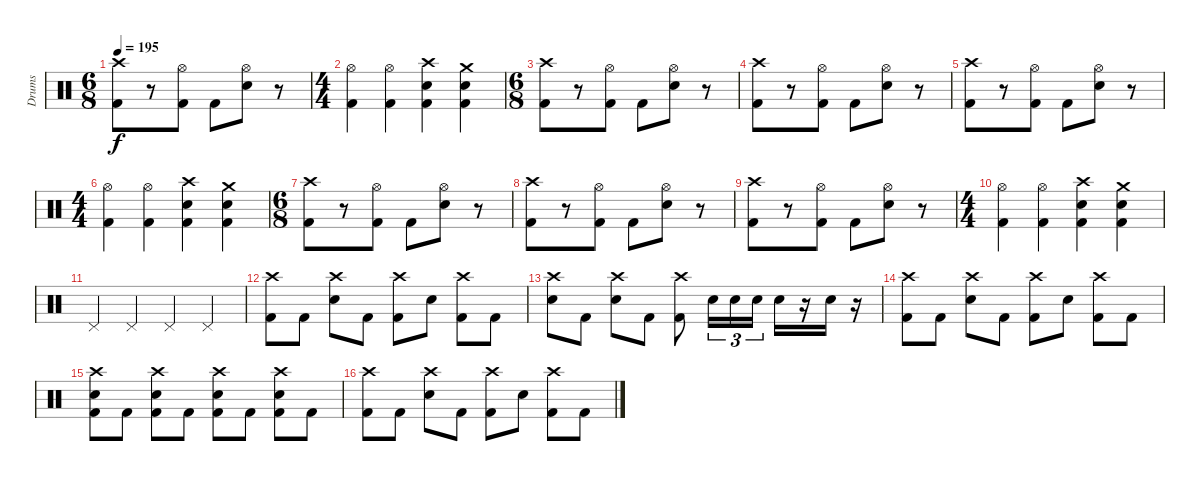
\track ("Drums" "Drums") {instrument percussion}
\staff {score}
\articulation defaults
\ts (6 8)
\tempo 195
\clef neutral
\ks c
("Crash high (hit)" "Kick (hit) 2").8{dy f} r.8 ("Hi-Hat (open)" "Kick (hit) 2").8 "Kick (hit) 2".8 ("Hi-Hat (open)" "Electric Snare (hit)").8 r.8 |
\ts (4 4)
("Hi-Hat (open)" "Kick (hit) 2").4 ("Hi-Hat (open)" "Kick (hit) 2").4 ("Crash high (hit)" "Electric Snare (hit)" "Kick (hit) 2").4 ("Crash medium (hit)" "Electric Snare (hit)" "Kick (hit) 2").4 |
\ts (6 8)
("Crash high (hit)" "Kick (hit) 2").8 r.8 ("Hi-Hat (open)" "Kick (hit) 2").8 "Kick (hit) 2".8 ("Hi-Hat (open)" "Electric Snare (hit)").8 r.8 |
("Crash high (hit)" "Kick (hit) 2").8 r.8 ("Hi-Hat (open)" "Kick (hit) 2").8 "Kick (hit) 2".8 ("Hi-Hat (open)" "Electric Snare (hit)").8 r.8 |
("Crash high (hit)" "Kick (hit) 2").8 r.8 ("Hi-Hat (open)" "Kick (hit) 2").8 "Kick (hit) 2".8 ("Hi-Hat (open)" "Electric Snare (hit)").8 r.8 |
\ts (4 4)
("Hi-Hat (open)" "Kick (hit) 2").4 ("Hi-Hat (open)" "Kick (hit) 2").4 ("Crash high (hit)" "Electric Snare (hit)" "Kick (hit) 2").4 ("Crash medium (hit)" "Electric Snare (hit)" "Kick (hit) 2").4 |
\ts (6 8)
("Crash high (hit)" "Kick (hit) 2").8 r.8 ("Hi-Hat (open)" "Kick (hit) 2").8 "Kick (hit) 2".8 ("Hi-Hat (open)" "Electric Snare (hit)").8 r.8 |
("Crash high (hit)" "Kick (hit) 2").8 r.8 ("Hi-Hat (open)" "Kick (hit) 2").8 "Kick (hit) 2".8 ("Hi-Hat (open)" "Electric Snare (hit)").8 r.8 |
("Crash high (hit)" "Kick (hit) 2").8 r.8 ("Hi-Hat (open)" "Kick (hit) 2").8 "Kick (hit) 2".8 ("Hi-Hat (open)" "Electric Snare (hit)").8 r.8 |
\ts (4 4)
("Hi-Hat (open)" "Kick (hit) 2").4 ("Hi-Hat (open)" "Kick (hit) 2").4 ("Crash high (hit)" "Electric Snare (hit)" "Kick (hit) 2").4 ("Crash medium (hit)" "Electric Snare (hit)" "Kick (hit) 2").4 |
"Pedal Hi-Hat (hit)".4 "Pedal Hi-Hat (hit)".4 "Pedal Hi-Hat (hit)".4 "Pedal Hi-Hat (hit)".4 |
("Crash high (hit)" "Kick (hit) 2").8 "Kick (hit) 2".8 ("Crash high (hit)" "Electric Snare (hit)").8 "Kick (hit) 2".8 ("Crash high (hit)" "Kick (hit) 2").8 "Electric Snare (hit)".8 ("Crash high (hit)" "Kick (hit) 2").8 "Kick (hit) 2".8 |
("Crash high (hit)" "Electric Snare (hit)").8 "Kick (hit) 2".8 ("Crash high (hit)" "Electric Snare (hit)").8 "Kick (hit) 2".8 ("Crash high (hit)" "Kick (hit) 2").8 "Electric Snare (hit)".16{tu (3 2)} "Electric Snare (hit)".16{tu (3 2)} "Electric Snare (hit)".16{tu (3 2)} "Electric Snare (hit)".16 r.16 "Electric Snare (hit)".16 r.16 |
("Crash high (hit)" "Kick (hit) 2").8 "Kick (hit) 2".8 ("Crash high (hit)" "Electric Snare (hit)").8 "Kick (hit) 2".8 ("Crash high (hit)" "Kick (hit) 2").8 "Electric Snare (hit)".8 ("Crash high (hit)" "Kick (hit) 2").8 "Kick (hit) 2".8 |
("Crash high (hit)" "Electric Snare (hit)" "Kick (hit) 2").8 "Kick (hit) 2".8 ("Crash high (hit)" "Electric Snare (hit)" "Kick (hit) 2").8 "Kick (hit) 2".8 ("Crash high (hit)" "Electric Snare (hit)" "Kick (hit) 2").8 "Kick (hit) 2".8 ("Crash high (hit)" "Electric Snare (hit)" "Kick (hit) 2").8 "Kick (hit) 2".8 |
("Crash high (hit)" "Kick (hit) 2").8 "Kick (hit) 2".8 ("Crash high (hit)" "Electric Snare (hit)").8 "Kick (hit) 2".8 ("Crash high (hit)" "Kick (hit) 2").8 "Electric Snare (hit)".8 ("Crash high (hit)" "Kick (hit) 2").8 "Kick (hit) 2".8
